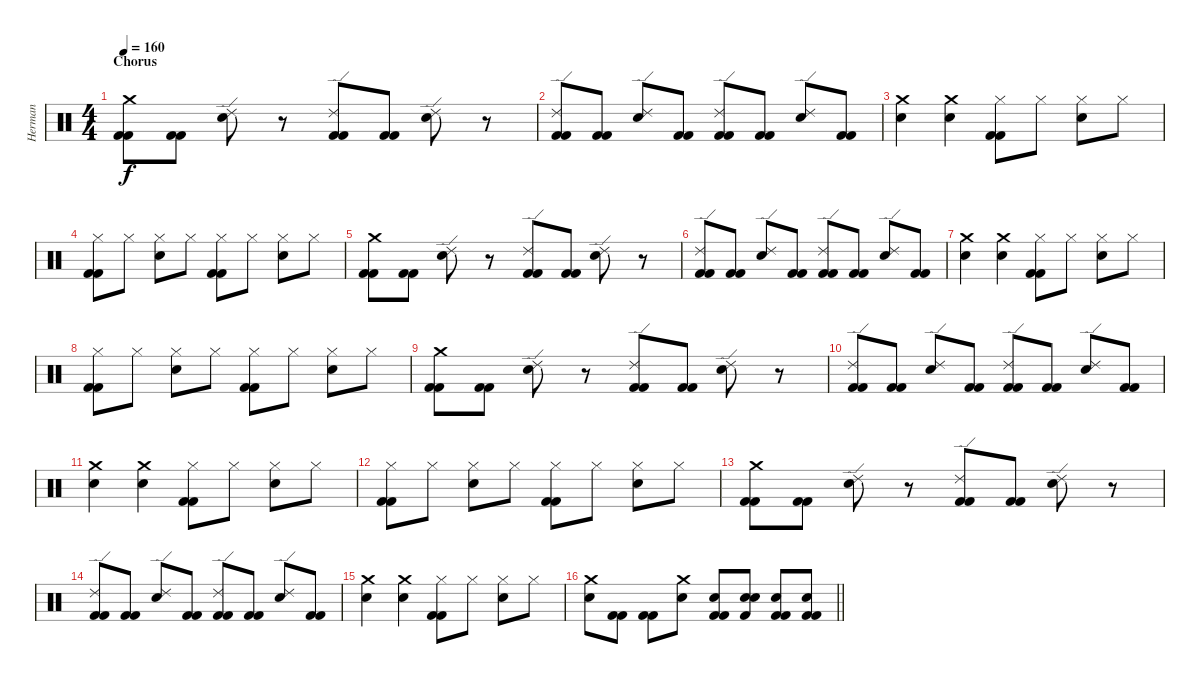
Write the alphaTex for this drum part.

\track ("Herman" "Herman") {instrument percussion}
\staff {score}
\articulation defaults
\ts (4 4)
\section ("" "Chorus")
\tempo 160
\clef neutral
\ks c
("Crash medium (hit)" "Kick (hit) 2" "Kick (hit) 2").8{dy f} ("Kick (hit) 2" "Kick (hit) 2").8 ("Electric Snare (hit)" "Ride (edge) 2").8 r.8 ("Ride (edge) 2" "Kick (hit) 2" "Kick (hit) 2").8 ("Kick (hit) 2" "Kick (hit) 2").8 ("Electric Snare (hit)" "Ride (edge) 2").8 r.8 |
("Kick (hit) 2" "Kick (hit) 2" "Ride (edge) 2").8 ("Kick (hit) 2" "Kick (hit) 2").8 ("Electric Snare (hit)" "Ride (edge) 2").8 ("Kick (hit) 2" "Kick (hit) 2").8 ("Kick (hit) 2" "Kick (hit) 2" "Ride (edge) 2").8 ("Kick (hit) 2" "Kick (hit) 2").8 ("Electric Snare (hit)" "Ride (edge) 2").8 ("Kick (hit) 2" "Kick (hit) 2").8 |
("Crash medium (hit)" "Electric Snare (hit)").4 ("Crash medium (hit)" "Electric Snare (hit)").4 ("Hi-Hat (closed)" "Kick (hit) 2" "Kick (hit) 2").8 "Hi-Hat (closed)".8 ("Electric Snare (hit)" "Hi-Hat (closed)").8 "Hi-Hat (closed)".8 |
("Kick (hit) 2" "Kick (hit) 2" "Hi-Hat (closed)").8 "Hi-Hat (closed)".8 ("Hi-Hat (closed)" "Electric Snare (hit)").8 "Hi-Hat (closed)".8 ("Hi-Hat (closed)" "Kick (hit) 2" "Kick (hit) 2").8 "Hi-Hat (closed)".8 ("Electric Snare (hit)" "Hi-Hat (closed)").8 "Hi-Hat (closed)".8 |
("Crash medium (hit)" "Kick (hit) 2" "Kick (hit) 2").8 ("Kick (hit) 2" "Kick (hit) 2").8 ("Electric Snare (hit)" "Ride (edge) 2").8 r.8 ("Ride (edge) 2" "Kick (hit) 2" "Kick (hit) 2").8 ("Kick (hit) 2" "Kick (hit) 2").8 ("Electric Snare (hit)" "Ride (edge) 2").8 r.8 |
("Kick (hit) 2" "Kick (hit) 2" "Ride (edge) 2").8 ("Kick (hit) 2" "Kick (hit) 2").8 ("Electric Snare (hit)" "Ride (edge) 2").8 ("Kick (hit) 2" "Kick (hit) 2").8 ("Kick (hit) 2" "Kick (hit) 2" "Ride (edge) 2").8 ("Kick (hit) 2" "Kick (hit) 2").8 ("Electric Snare (hit)" "Ride (edge) 2").8 ("Kick (hit) 2" "Kick (hit) 2").8 |
("Crash medium (hit)" "Electric Snare (hit)").4 ("Crash medium (hit)" "Electric Snare (hit)").4 ("Hi-Hat (closed)" "Kick (hit) 2" "Kick (hit) 2").8 "Hi-Hat (closed)".8 ("Electric Snare (hit)" "Hi-Hat (closed)").8 "Hi-Hat (closed)".8 |
("Kick (hit) 2" "Kick (hit) 2" "Hi-Hat (closed)").8 "Hi-Hat (closed)".8 ("Hi-Hat (closed)" "Electric Snare (hit)").8 "Hi-Hat (closed)".8 ("Hi-Hat (closed)" "Kick (hit) 2" "Kick (hit) 2").8 "Hi-Hat (closed)".8 ("Electric Snare (hit)" "Hi-Hat (closed)").8 "Hi-Hat (closed)".8 |
("Crash medium (hit)" "Kick (hit) 2" "Kick (hit) 2").8 ("Kick (hit) 2" "Kick (hit) 2").8 ("Electric Snare (hit)" "Ride (edge) 2").8 r.8 ("Ride (edge) 2" "Kick (hit) 2" "Kick (hit) 2").8 ("Kick (hit) 2" "Kick (hit) 2").8 ("Electric Snare (hit)" "Ride (edge) 2").8 r.8 |
("Kick (hit) 2" "Kick (hit) 2" "Ride (edge) 2").8 ("Kick (hit) 2" "Kick (hit) 2").8 ("Electric Snare (hit)" "Ride (edge) 2").8 ("Kick (hit) 2" "Kick (hit) 2").8 ("Kick (hit) 2" "Kick (hit) 2" "Ride (edge) 2").8 ("Kick (hit) 2" "Kick (hit) 2").8 ("Electric Snare (hit)" "Ride (edge) 2").8 ("Kick (hit) 2" "Kick (hit) 2").8 |
("Crash medium (hit)" "Electric Snare (hit)").4 ("Crash medium (hit)" "Electric Snare (hit)").4 ("Hi-Hat (closed)" "Kick (hit) 2" "Kick (hit) 2").8 "Hi-Hat (closed)".8 ("Electric Snare (hit)" "Hi-Hat (closed)").8 "Hi-Hat (closed)".8 |
("Kick (hit) 2" "Kick (hit) 2" "Hi-Hat (closed)").8 "Hi-Hat (closed)".8 ("Hi-Hat (closed)" "Electric Snare (hit)").8 "Hi-Hat (closed)".8 ("Hi-Hat (closed)" "Kick (hit) 2" "Kick (hit) 2").8 "Hi-Hat (closed)".8 ("Electric Snare (hit)" "Hi-Hat (closed)").8 "Hi-Hat (closed)".8 |
("Crash medium (hit)" "Kick (hit) 2" "Kick (hit) 2").8 ("Kick (hit) 2" "Kick (hit) 2").8 ("Electric Snare (hit)" "Ride (edge) 2").8 r.8 ("Ride (edge) 2" "Kick (hit) 2" "Kick (hit) 2").8 ("Kick (hit) 2" "Kick (hit) 2").8 ("Electric Snare (hit)" "Ride (edge) 2").8 r.8 |
("Kick (hit) 2" "Kick (hit) 2" "Ride (edge) 2").8 ("Kick (hit) 2" "Kick (hit) 2").8 ("Electric Snare (hit)" "Ride (edge) 2").8 ("Kick (hit) 2" "Kick (hit) 2").8 ("Kick (hit) 2" "Kick (hit) 2" "Ride (edge) 2").8 ("Kick (hit) 2" "Kick (hit) 2").8 ("Electric Snare (hit)" "Ride (edge) 2").8 ("Kick (hit) 2" "Kick (hit) 2").8 |
("Crash medium (hit)" "Electric Snare (hit)").4 ("Crash medium (hit)" "Electric Snare (hit)").4 ("Hi-Hat (closed)" "Kick (hit) 2" "Kick (hit) 2").8 "Hi-Hat (closed)".8 ("Electric Snare (hit)" "Hi-Hat (closed)").8 "Hi-Hat (closed)".8 |
\barLineRight lightlight
("Crash medium (hit)" "Electric Snare (hit)").8 ("Kick (hit) 2" "Kick (hit) 2").8 ("Kick (hit) 2" "Kick (hit) 2").8 ("Crash medium (hit)" "Electric Snare (hit)").8 ("Kick (hit) 2" "Electric Snare (hit)" "Kick (hit) 2").8 ("Electric Snare (hit)" "Electric Snare (hit)" "Kick (hit) 2").8 ("Kick (hit) 2" "Kick (hit) 2" "Electric Snare (hit)").8 ("Electric Snare (hit)" "Kick (hit) 2" "Kick (hit) 2").8
